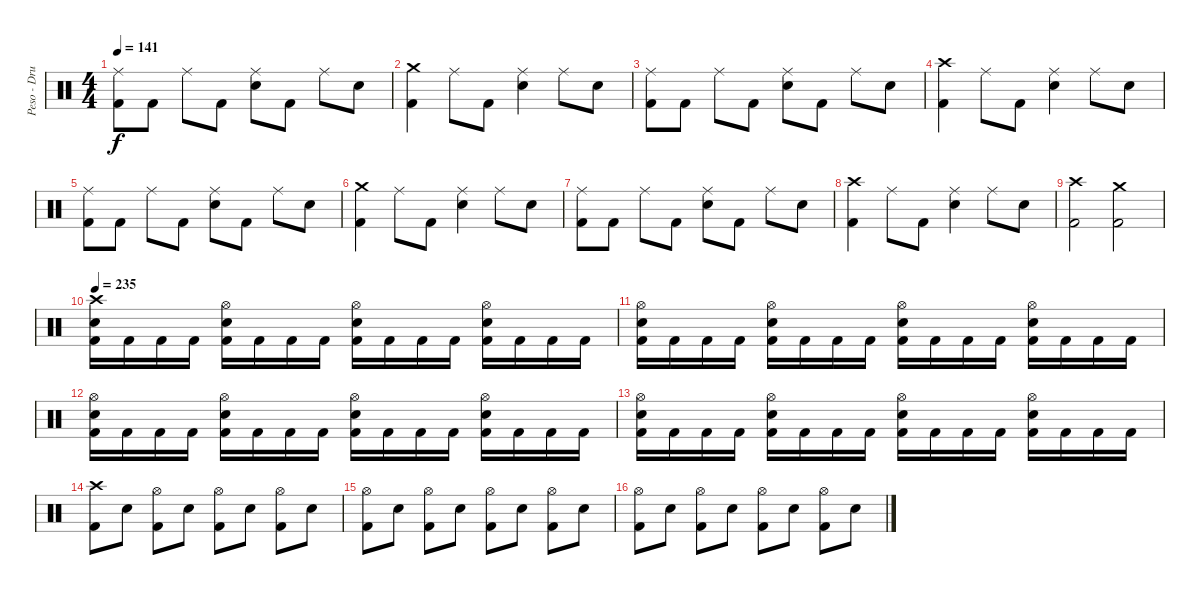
\track ("Peso - Drums" "Peso - Dru") {instrument percussion}
\staff {score}
\articulation defaults
\ts (4 4)
\tempo 141
\clef neutral
\ks c
("Ride (middle)" "Kick (hit) 2").8{dy f} "Kick (hit) 2".8 "Ride (middle)".8 "Kick (hit) 2".8 ("Ride (middle)" "Electric Snare (hit)").8 "Kick (hit) 2".8 "Ride (middle)".8 "Electric Snare (hit)".8 |
("Crash medium (hit)" "Kick (hit) 2").4 "Ride (middle)".8 "Kick (hit) 2".8 ("Ride (middle)" "Electric Snare (hit)").4 "Ride (middle)".8 "Electric Snare (hit)".8 |
("Ride (middle)" "Kick (hit) 2").8 "Kick (hit) 2".8 "Ride (middle)".8 "Kick (hit) 2".8 ("Ride (middle)" "Electric Snare (hit)").8 "Kick (hit) 2".8 "Ride (middle)".8 "Electric Snare (hit)".8 |
("Crash high (hit)" "Kick (hit) 2").4 "Ride (middle)".8 "Kick (hit) 2".8 ("Ride (middle)" "Electric Snare (hit)").4 "Ride (middle)".8 "Electric Snare (hit)".8 |
("Ride (middle)" "Kick (hit) 2").8 "Kick (hit) 2".8 "Ride (middle)".8 "Kick (hit) 2".8 ("Ride (middle)" "Electric Snare (hit)").8 "Kick (hit) 2".8 "Ride (middle)".8 "Electric Snare (hit)".8 |
("Crash medium (hit)" "Kick (hit) 2").4 "Ride (middle)".8 "Kick (hit) 2".8 ("Ride (middle)" "Electric Snare (hit)").4 "Ride (middle)".8 "Electric Snare (hit)".8 |
("Ride (middle)" "Kick (hit) 2").8 "Kick (hit) 2".8 "Ride (middle)".8 "Kick (hit) 2".8 ("Ride (middle)" "Electric Snare (hit)").8 "Kick (hit) 2".8 "Ride (middle)".8 "Electric Snare (hit)".8 |
("Crash high (hit)" "Kick (hit) 2").4 "Ride (middle)".8 "Kick (hit) 2".8 ("Ride (middle)" "Electric Snare (hit)").4 "Ride (middle)".8 "Electric Snare (hit)".8 |
("Crash high (hit)" "Kick (hit) 2").2 ("Crash medium (hit)" "Kick (hit) 2").2 |
\tempo 235
("Crash high (hit)" "Electric Snare (hit)" "Kick (hit) 2").16 "Kick (hit) 2".16 "Kick (hit) 2".16 "Kick (hit) 2".16 ("Hi-Hat (open)" "Electric Snare (hit)" "Kick (hit) 2").16 "Kick (hit) 2".16 "Kick (hit) 2".16 "Kick (hit) 2".16 ("Hi-Hat (open)" "Electric Snare (hit)" "Kick (hit) 2").16 "Kick (hit) 2".16 "Kick (hit) 2".16 "Kick (hit) 2".16 ("Hi-Hat (open)" "Electric Snare (hit)" "Kick (hit) 2").16 "Kick (hit) 2".16 "Kick (hit) 2".16 "Kick (hit) 2".16 |
("Hi-Hat (open)" "Electric Snare (hit)" "Kick (hit) 2").16 "Kick (hit) 2".16 "Kick (hit) 2".16 "Kick (hit) 2".16 ("Hi-Hat (open)" "Electric Snare (hit)" "Kick (hit) 2").16 "Kick (hit) 2".16 "Kick (hit) 2".16 "Kick (hit) 2".16 ("Hi-Hat (open)" "Electric Snare (hit)" "Kick (hit) 2").16 "Kick (hit) 2".16 "Kick (hit) 2".16 "Kick (hit) 2".16 ("Hi-Hat (open)" "Electric Snare (hit)" "Kick (hit) 2").16 "Kick (hit) 2".16 "Kick (hit) 2".16 "Kick (hit) 2".16 |
("Hi-Hat (open)" "Electric Snare (hit)" "Kick (hit) 2").16 "Kick (hit) 2".16 "Kick (hit) 2".16 "Kick (hit) 2".16 ("Hi-Hat (open)" "Electric Snare (hit)" "Kick (hit) 2").16 "Kick (hit) 2".16 "Kick (hit) 2".16 "Kick (hit) 2".16 ("Hi-Hat (open)" "Electric Snare (hit)" "Kick (hit) 2").16 "Kick (hit) 2".16 "Kick (hit) 2".16 "Kick (hit) 2".16 ("Hi-Hat (open)" "Electric Snare (hit)" "Kick (hit) 2").16 "Kick (hit) 2".16 "Kick (hit) 2".16 "Kick (hit) 2".16 |
("Hi-Hat (open)" "Electric Snare (hit)" "Kick (hit) 2").16 "Kick (hit) 2".16 "Kick (hit) 2".16 "Kick (hit) 2".16 ("Hi-Hat (open)" "Electric Snare (hit)" "Kick (hit) 2").16 "Kick (hit) 2".16 "Kick (hit) 2".16 "Kick (hit) 2".16 ("Hi-Hat (open)" "Electric Snare (hit)" "Kick (hit) 2").16 "Kick (hit) 2".16 "Kick (hit) 2".16 "Kick (hit) 2".16 ("Hi-Hat (open)" "Electric Snare (hit)" "Kick (hit) 2").16 "Kick (hit) 2".16 "Kick (hit) 2".16 "Kick (hit) 2".16 |
("Crash high (hit)" "Kick (hit) 2").8 "Electric Snare (hit)".8 ("Hi-Hat (open)" "Kick (hit) 2").8 "Electric Snare (hit)".8 ("Hi-Hat (open)" "Kick (hit) 2").8 "Electric Snare (hit)".8 ("Hi-Hat (open)" "Kick (hit) 2").8 "Electric Snare (hit)".8 |
("Hi-Hat (open)" "Kick (hit) 2").8 "Electric Snare (hit)".8 ("Hi-Hat (open)" "Kick (hit) 2").8 "Electric Snare (hit)".8 ("Hi-Hat (open)" "Kick (hit) 2").8 "Electric Snare (hit)".8 ("Hi-Hat (open)" "Kick (hit) 2").8 "Electric Snare (hit)".8 |
("Hi-Hat (open)" "Kick (hit) 2").8 "Electric Snare (hit)".8 ("Hi-Hat (open)" "Kick (hit) 2").8 "Electric Snare (hit)".8 ("Hi-Hat (open)" "Kick (hit) 2").8 "Electric Snare (hit)".8 ("Hi-Hat (open)" "Kick (hit) 2").8 "Electric Snare (hit)".8
